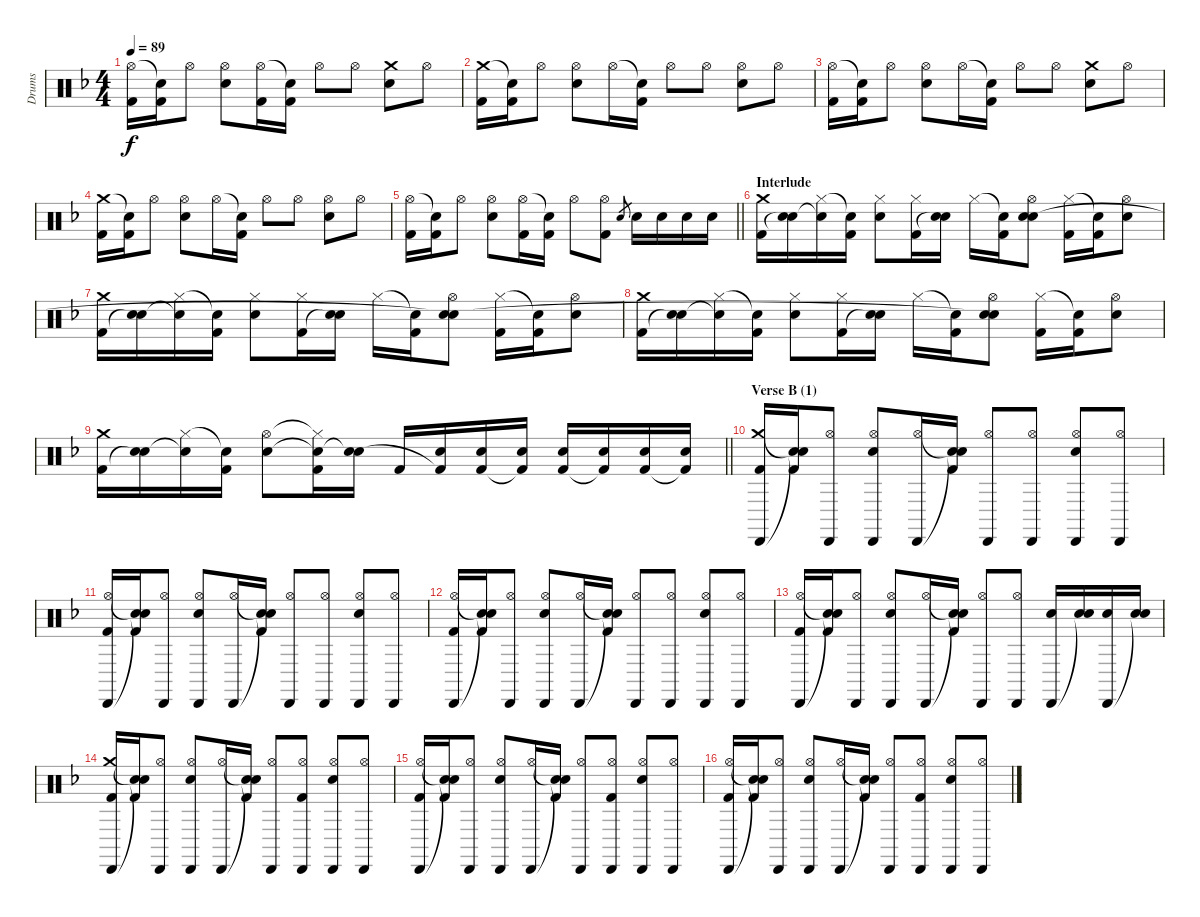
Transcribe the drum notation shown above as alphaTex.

\track ("Drums" "Drums") {instrument percussion}
\staff {score}
\articulation defaults
\ts (4 4)
\tempo 89
\clef neutral
\ks dminor
("Hi-Hat (open)" "Kick (hit) 2").16{dy f} ("Snare (hit)"{t} "Kick (hit) 2").16 "Hi-Hat (open)".8 ("Hi-Hat (open)" "Electric Snare (hit)").8 ("Hi-Hat (open)" "Kick (hit) 2").16 ("Snare (hit)"{t} "Kick (hit) 2").16 "Hi-Hat (open)".8 "Hi-Hat (open)".8 ("Crash medium (hit)" "Electric Snare (hit)").8 "Hi-Hat (open)".8 |
("Crash medium (hit)" "Kick (hit) 2").16 ("Snare (hit)"{t} "Kick (hit) 2").16 "Hi-Hat (open)".8 ("Hi-Hat (open)" "Electric Snare (hit)").8 "Hi-Hat (open)".16 ("Snare (hit)"{t} "Kick (hit) 2").16 "Hi-Hat (open)".8 "Hi-Hat (open)".8 ("Hi-Hat (open)" "Electric Snare (hit)").8 "Hi-Hat (open)".8 |
("Hi-Hat (open)" "Kick (hit) 2").16 ("Snare (hit)"{t} "Kick (hit) 2").16 "Hi-Hat (open)".8 ("Hi-Hat (open)" "Electric Snare (hit)").8 "Hi-Hat (open)".16 ("Snare (hit)"{t} "Kick (hit) 2").16 "Hi-Hat (open)".8 "Hi-Hat (open)".8 ("Crash medium (hit)" "Electric Snare (hit)").8 "Hi-Hat (open)".8 |
("Crash medium (hit)" "Kick (hit) 2").16 ("Snare (hit)"{t} "Kick (hit) 2").16 "Hi-Hat (open)".8 ("Hi-Hat (open)" "Electric Snare (hit)").8 "Hi-Hat (open)".16 ("Snare (hit)"{t} "Kick (hit) 2").16 "Hi-Hat (open)".8 "Hi-Hat (open)".8 ("Hi-Hat (open)" "Electric Snare (hit)").8 "Hi-Hat (open)".8 |
\barLineRight lightlight
("Hi-Hat (open)" "Kick (hit) 2").16 ("Snare (hit)"{t} "Kick (hit) 2").16 "Hi-Hat (open)".8 ("Hi-Hat (open)" "Electric Snare (hit)").8 ("Hi-Hat (open)" "Kick (hit) 2").16 ("Snare (hit)"{t} "Kick (hit) 2").16 "Hi-Hat (open)".8 ("Hi-Hat (open)" "Kick (hit) 2").8 "Electric Snare (hit)".8{gr} "Electric Snare (hit)".16 "Electric Snare (hit)".16 "Electric Snare (hit)".16 "Electric Snare (hit)".16 |
\section ("" "Interlude")
("Crash medium (hit)" "Kick (hit) 2").16 ("Electric Snare (hit)" "Snare (hit)"{t}).16 ("Hi-Hat (closed)" "Snare (hit)"{t}).16 ("Snare (hit)"{t} "Kick (hit) 2").16 ("Hi-Hat (closed)" "Electric Snare (hit)").8 ("Hi-Hat (closed)" "Kick (hit) 2").16 ("Electric Snare (hit)" "Snare (hit)"{t}).16 "Hi-Hat (closed)".16 ("Snare (hit)"{t} "Kick (hit) 2").16 ("Hi-Hat (open)" "Electric Snare (hit)" "Snare (hit)").8 ("Hi-Hat (closed)" "Kick (hit) 2").16 ("Snare (hit)"{t} "Kick (hit) 2").16 ("Hi-Hat (open)" "Electric Snare (hit)").8 |
("Crash medium (hit)" "Kick (hit) 2").16 ("Electric Snare (hit)" "Snare (hit)"{t}).16 ("Hi-Hat (closed)" "Snare (hit)"{t}).16 ("Snare (hit)"{t} "Kick (hit) 2").16 ("Hi-Hat (closed)" "Electric Snare (hit)").8 ("Hi-Hat (closed)" "Kick (hit) 2").16 ("Electric Snare (hit)" "Snare (hit)"{t}).16 "Hi-Hat (closed)".16 ("Snare (hit)"{t} "Kick (hit) 2").16 ("Hi-Hat (open)" "Electric Snare (hit)" "Snare (hit)"{t}).8 ("Hi-Hat (closed)" "Kick (hit) 2").16 ("Snare (hit)"{t} "Kick (hit) 2").16 ("Hi-Hat (open)" "Electric Snare (hit)").8 |
("Crash medium (hit)" "Kick (hit) 2").16 ("Electric Snare (hit)" "Snare (hit)"{t}).16 ("Hi-Hat (closed)" "Snare (hit)"{t}).16 ("Snare (hit)"{t} "Kick (hit) 2").16 ("Hi-Hat (closed)" "Electric Snare (hit)").8 ("Hi-Hat (closed)" "Kick (hit) 2").16 ("Electric Snare (hit)" "Snare (hit)"{t}).16 "Hi-Hat (closed)".16 ("Snare (hit)"{t} "Kick (hit) 2").16 ("Hi-Hat (open)" "Electric Snare (hit)" "Snare (hit)"{t}).8 ("Hi-Hat (closed)" "Kick (hit) 2").16 ("Snare (hit)"{t} "Kick (hit) 2").16 ("Hi-Hat (open)" "Electric Snare (hit)").8 |
\barLineRight lightlight
("Crash medium (hit)" "Kick (hit) 2").16 ("Electric Snare (hit)" "Snare (hit)"{t}).16 ("Hi-Hat (closed)" "Snare (hit)"{t}).16 ("Snare (hit)"{t} "Kick (hit) 2").16 ("Hi-Hat (open)" "Electric Snare (hit)").8 ("Hi-Hat (closed)"{t} "Snare (hit)"{t} "Kick (hit) 2").16 ("Electric Snare (hit)" "Snare (hit)"{t}).16 "Kick (hit) 2".16 ("Electric Snare (hit)" "Kick (hit) 2"{t}).16 ("Electric Snare (hit)" "Kick (hit) 2").16 ("Electric Snare (hit)" "Kick (hit) 2"{t}).16 ("Electric Snare (hit)" "Kick (hit) 2").16 ("Electric Snare (hit)" "Kick (hit) 2"{t}).16 ("Electric Snare (hit)" "Kick (hit) 2").16 ("Electric Snare (hit)" "Kick (hit) 2"{t}).16 |
\section ("" "Verse B (1)")
("Crash medium (hit)" "Cabasa (hit)" "Kick (hit) 2").16 ("Snare (hit)"{t} "Snare (hit)"{t} "Kick (hit) 2").16 ("Hi-Hat (open)" "Cabasa (hit)").8 ("Hi-Hat (open)" "Cabasa (hit)" "Electric Snare (hit)").8 ("Hi-Hat (open)" "Cabasa (hit)").16 ("Snare (hit)"{t} "Snare (hit)"{t} "Kick (hit) 2").16 ("Hi-Hat (open)" "Cabasa (hit)").8 ("Hi-Hat (open)" "Cabasa (hit)").8 ("Hi-Hat (open)" "Cabasa (hit)" "Electric Snare (hit)").8 ("Hi-Hat (open)" "Cabasa (hit)").8 |
("Hi-Hat (open)" "Cabasa (hit)" "Kick (hit) 2").16 ("Snare (hit)"{t} "Snare (hit)"{t} "Kick (hit) 2").16 ("Hi-Hat (open)" "Cabasa (hit)").8 ("Hi-Hat (open)" "Cabasa (hit)" "Electric Snare (hit)").8 ("Hi-Hat (open)" "Cabasa (hit)").16 ("Snare (hit)"{t} "Snare (hit)"{t} "Kick (hit) 2").16 ("Hi-Hat (open)" "Cabasa (hit)").8 ("Hi-Hat (open)" "Cabasa (hit)").8 ("Hi-Hat (open)" "Cabasa (hit)" "Electric Snare (hit)").8 ("Hi-Hat (open)" "Cabasa (hit)").8 |
("Hi-Hat (open)" "Cabasa (hit)" "Kick (hit) 2").16 ("Snare (hit)"{t} "Snare (hit)"{t} "Kick (hit) 2").16 ("Hi-Hat (open)" "Cabasa (hit)").8 ("Hi-Hat (open)" "Cabasa (hit)" "Electric Snare (hit)").8 ("Hi-Hat (open)" "Cabasa (hit)").16 ("Snare (hit)"{t} "Snare (hit)"{t} "Kick (hit) 2").16 ("Hi-Hat (open)" "Cabasa (hit)").8 ("Hi-Hat (open)" "Cabasa (hit)").8 ("Hi-Hat (open)" "Cabasa (hit)" "Electric Snare (hit)").8 ("Hi-Hat (open)" "Cabasa (hit)").8 |
("Hi-Hat (open)" "Cabasa (hit)" "Kick (hit) 2").16 ("Snare (hit)"{t} "Snare (hit)"{t} "Kick (hit) 2").16 ("Hi-Hat (open)" "Cabasa (hit)").8 ("Hi-Hat (open)" "Cabasa (hit)" "Electric Snare (hit)").8 ("Hi-Hat (open)" "Cabasa (hit)").16 ("Snare (hit)"{t} "Snare (hit)"{t} "Kick (hit) 2").16 ("Hi-Hat (open)" "Cabasa (hit)").8 ("Hi-Hat (open)" "Cabasa (hit)").8 ("Cabasa (hit)" "Electric Snare (hit)").16 ("Snare (hit)"{t} "Electric Snare (hit)").16 ("Cabasa (hit)" "Electric Snare (hit)").16 ("Snare (hit)"{t} "Electric Snare (hit)").16 |
("Crash medium (hit)" "Cabasa (hit)" "Kick (hit) 2").16 ("Snare (hit)"{t} "Snare (hit)"{t} "Kick (hit) 2").16 ("Hi-Hat (open)" "Cabasa (hit)").8 ("Hi-Hat (open)" "Cabasa (hit)" "Electric Snare (hit)").8 ("Hi-Hat (open)" "Cabasa (hit)").16 ("Snare (hit)"{t} "Snare (hit)"{t} "Kick (hit) 2").16 ("Hi-Hat (open)" "Cabasa (hit)").8 ("Hi-Hat (open)" "Cabasa (hit)" "Kick (hit) 2").8 ("Hi-Hat (open)" "Cabasa (hit)" "Electric Snare (hit)").8 ("Hi-Hat (open)" "Cabasa (hit)").8 |
("Hi-Hat (open)" "Cabasa (hit)" "Kick (hit) 2").16 ("Snare (hit)"{t} "Snare (hit)"{t} "Kick (hit) 2").16 ("Hi-Hat (open)" "Cabasa (hit)").8 ("Hi-Hat (open)" "Cabasa (hit)" "Electric Snare (hit)").8 ("Hi-Hat (open)" "Cabasa (hit)").16 ("Snare (hit)"{t} "Snare (hit)"{t} "Kick (hit) 2").16 ("Hi-Hat (open)" "Cabasa (hit)").8 ("Hi-Hat (open)" "Cabasa (hit)" "Kick (hit) 2").8 ("Hi-Hat (open)" "Cabasa (hit)" "Electric Snare (hit)").8 ("Hi-Hat (open)" "Cabasa (hit)").8 |
("Hi-Hat (open)" "Cabasa (hit)" "Kick (hit) 2").16 ("Snare (hit)"{t} "Snare (hit)"{t} "Kick (hit) 2").16 ("Hi-Hat (open)" "Cabasa (hit)").8 ("Hi-Hat (open)" "Cabasa (hit)" "Electric Snare (hit)").8 ("Hi-Hat (open)" "Cabasa (hit)").16 ("Snare (hit)"{t} "Snare (hit)"{t} "Kick (hit) 2").16 ("Hi-Hat (open)" "Cabasa (hit)").8 ("Hi-Hat (open)" "Cabasa (hit)" "Kick (hit) 2").8 ("Hi-Hat (open)" "Cabasa (hit)" "Electric Snare (hit)").8 ("Hi-Hat (open)" "Cabasa (hit)").8
